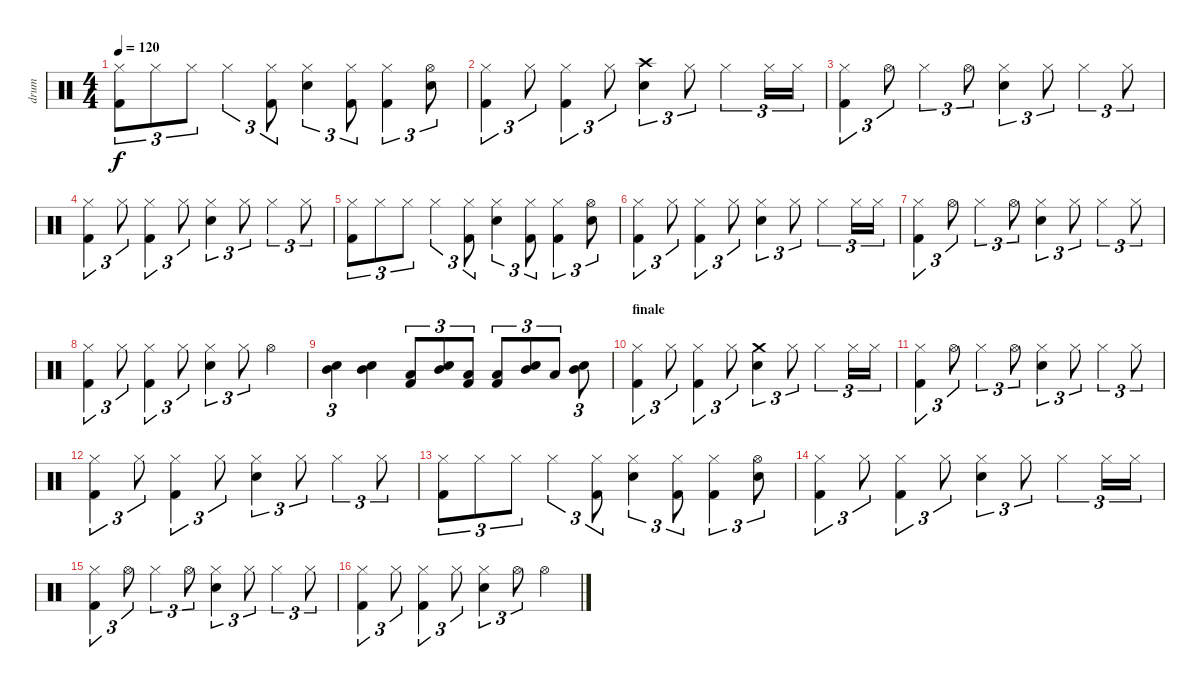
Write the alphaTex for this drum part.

\track ("drum" "drum") {instrument percussion}
\staff {score}
\articulation defaults
\ts (4 4)
\tempo 120
\clef neutral
\ks c
("Hi-Hat (closed)" "Kick (hit) 2").8{tu (3 2) dy f} "Hi-Hat (closed)".8{tu (3 2)} "Hi-Hat (closed)".8{tu (3 2)} "Hi-Hat (closed)".4{tu (3 2)} ("Hi-Hat (closed)" "Kick (hit) 2").8{tu (3 2)} ("Hi-Hat (closed)" "Electric Snare (hit)").4{tu (3 2)} ("Hi-Hat (closed)" "Kick (hit) 2").8{tu (3 2)} ("Hi-Hat (closed)" "Kick (hit) 2").4{tu (3 2)} ("Hi-Hat (open)" "Electric Snare (hit)").8{tu (3 2)} |
("Hi-Hat (closed)" "Kick (hit) 2").4{tu (3 2)} "Hi-Hat (closed)".8{tu (3 2)} ("Hi-Hat (closed)" "Kick (hit) 2").4{tu (3 2)} "Hi-Hat (closed)".8{tu (3 2)} ("Crash high (hit)" "Electric Snare (hit)").4{tu (3 2)} "Hi-Hat (closed)".8{tu (3 2)} "Hi-Hat (closed)".4{tu (3 2)} "Hi-Hat (closed)".16{tu (3 2)} "Hi-Hat (closed)".16{tu (3 2)} |
("Hi-Hat (closed)" "Kick (hit) 2").4{tu (3 2)} "Hi-Hat (open)".8{tu (3 2)} "Hi-Hat (closed)".4{tu (3 2)} "Hi-Hat (open)".8{tu (3 2)} ("Hi-Hat (closed)" "Electric Snare (hit)").4{tu (3 2)} "Hi-Hat (closed)".8{tu (3 2)} "Hi-Hat (closed)".4{tu (3 2)} "Hi-Hat (closed)".8{tu (3 2)} |
("Hi-Hat (closed)" "Kick (hit) 2").4{tu (3 2)} "Hi-Hat (closed)".8{tu (3 2)} ("Hi-Hat (closed)" "Kick (hit) 2").4{tu (3 2)} "Hi-Hat (closed)".8{tu (3 2)} ("Hi-Hat (closed)" "Electric Snare (hit)").4{tu (3 2)} "Hi-Hat (closed)".8{tu (3 2)} "Hi-Hat (closed)".4{tu (3 2)} "Hi-Hat (closed)".8{tu (3 2)} |
("Hi-Hat (closed)" "Kick (hit) 2").8{tu (3 2)} "Hi-Hat (closed)".8{tu (3 2)} "Hi-Hat (closed)".8{tu (3 2)} "Hi-Hat (closed)".4{tu (3 2)} ("Hi-Hat (closed)" "Kick (hit) 2").8{tu (3 2)} ("Hi-Hat (closed)" "Electric Snare (hit)").4{tu (3 2)} ("Hi-Hat (closed)" "Kick (hit) 2").8{tu (3 2)} ("Hi-Hat (closed)" "Kick (hit) 2").4{tu (3 2)} ("Hi-Hat (open)" "Electric Snare (hit)").8{tu (3 2)} |
("Hi-Hat (closed)" "Kick (hit) 2").4{tu (3 2)} "Hi-Hat (closed)".8{tu (3 2)} ("Hi-Hat (closed)" "Kick (hit) 2").4{tu (3 2)} "Hi-Hat (closed)".8{tu (3 2)} ("Hi-Hat (closed)" "Electric Snare (hit)").4{tu (3 2)} "Hi-Hat (closed)".8{tu (3 2)} "Hi-Hat (closed)".4{tu (3 2)} "Hi-Hat (closed)".16{tu (3 2)} "Hi-Hat (closed)".16{tu (3 2)} |
("Hi-Hat (closed)" "Kick (hit) 2").4{tu (3 2)} "Hi-Hat (open)".8{tu (3 2)} "Hi-Hat (closed)".4{tu (3 2)} "Hi-Hat (open)".8{tu (3 2)} ("Hi-Hat (closed)" "Electric Snare (hit)").4{tu (3 2)} "Hi-Hat (closed)".8{tu (3 2)} "Hi-Hat (closed)".4{tu (3 2)} "Hi-Hat (closed)".8{tu (3 2)} |
("Hi-Hat (closed)" "Kick (hit) 2").4{tu (3 2)} "Hi-Hat (closed)".8{tu (3 2)} ("Hi-Hat (closed)" "Kick (hit) 2").4{tu (3 2)} "Hi-Hat (closed)".8{tu (3 2)} ("Hi-Hat (closed)" "Electric Snare (hit)").4{tu (3 2)} "Hi-Hat (closed)".8{tu (3 2)} "Hi-Hat (open)".4 |
("Mid Tom (hit)" "Electric Snare (hit)").4{tu (3 2)} ("Mid Tom (hit)" "Electric Snare (hit)").4 ("Low Tom (hit)" "Kick (hit) 2").8{tu (3 2)} ("Mid Tom (hit)" "Electric Snare (hit)").8{tu (3 2)} ("Low Tom (hit)" "Kick (hit) 2").8{tu (3 2)} ("Low Tom (hit)" "Kick (hit) 2").8{tu (3 2)} ("Mid Tom (hit)" "Electric Snare (hit)").8{tu (3 2)} "Low Tom (hit)".8{tu (3 2)} ("Mid Tom (hit)" "Electric Snare (hit)").8{tu (3 2)} |
\section ("" "finale")
("Hi-Hat (closed)" "Kick (hit) 2").4{tu (3 2)} "Hi-Hat (closed)".8{tu (3 2)} ("Hi-Hat (closed)" "Kick (hit) 2").4{tu (3 2)} "Hi-Hat (closed)".8{tu (3 2)} ("Crash medium (hit)" "Electric Snare (hit)").4{tu (3 2)} "Hi-Hat (closed)".8{tu (3 2)} "Hi-Hat (closed)".4{tu (3 2)} "Hi-Hat (closed)".16{tu (3 2)} "Hi-Hat (closed)".16{tu (3 2)} |
("Hi-Hat (closed)" "Kick (hit) 2").4{tu (3 2)} "Hi-Hat (open)".8{tu (3 2)} "Hi-Hat (closed)".4{tu (3 2)} "Hi-Hat (open)".8{tu (3 2)} ("Hi-Hat (closed)" "Electric Snare (hit)").4{tu (3 2)} "Hi-Hat (closed)".8{tu (3 2)} "Hi-Hat (closed)".4{tu (3 2)} "Hi-Hat (closed)".8{tu (3 2)} |
("Hi-Hat (closed)" "Kick (hit) 2").4{tu (3 2)} "Hi-Hat (closed)".8{tu (3 2)} ("Hi-Hat (closed)" "Kick (hit) 2").4{tu (3 2)} "Hi-Hat (closed)".8{tu (3 2)} ("Hi-Hat (closed)" "Electric Snare (hit)").4{tu (3 2)} "Hi-Hat (closed)".8{tu (3 2)} "Hi-Hat (closed)".4{tu (3 2)} "Hi-Hat (closed)".8{tu (3 2)} |
("Hi-Hat (closed)" "Kick (hit) 2").8{tu (3 2)} "Hi-Hat (closed)".8{tu (3 2)} "Hi-Hat (closed)".8{tu (3 2)} "Hi-Hat (closed)".4{tu (3 2)} ("Hi-Hat (closed)" "Kick (hit) 2").8{tu (3 2)} ("Hi-Hat (closed)" "Electric Snare (hit)").4{tu (3 2)} ("Hi-Hat (closed)" "Kick (hit) 2").8{tu (3 2)} ("Hi-Hat (closed)" "Kick (hit) 2").4{tu (3 2)} ("Hi-Hat (open)" "Electric Snare (hit)").8{tu (3 2)} |
("Hi-Hat (closed)" "Kick (hit) 2").4{tu (3 2)} "Hi-Hat (closed)".8{tu (3 2)} ("Hi-Hat (closed)" "Kick (hit) 2").4{tu (3 2)} "Hi-Hat (closed)".8{tu (3 2)} ("Hi-Hat (closed)" "Electric Snare (hit)").4{tu (3 2)} "Hi-Hat (closed)".8{tu (3 2)} "Hi-Hat (closed)".4{tu (3 2)} "Hi-Hat (closed)".16{tu (3 2)} "Hi-Hat (closed)".16{tu (3 2)} |
("Hi-Hat (closed)" "Kick (hit) 2").4{tu (3 2)} "Hi-Hat (open)".8{tu (3 2)} "Hi-Hat (closed)".4{tu (3 2)} "Hi-Hat (open)".8{tu (3 2)} ("Hi-Hat (closed)" "Electric Snare (hit)").4{tu (3 2)} "Hi-Hat (closed)".8{tu (3 2)} "Hi-Hat (closed)".4{tu (3 2)} "Hi-Hat (closed)".8{tu (3 2)} |
("Hi-Hat (closed)" "Kick (hit) 2").4{tu (3 2)} "Hi-Hat (closed)".8{tu (3 2)} ("Hi-Hat (closed)" "Kick (hit) 2").4{tu (3 2)} "Hi-Hat (closed)".8{tu (3 2)} ("Hi-Hat (closed)" "Electric Snare (hit)").4{tu (3 2)} "Hi-Hat (open)".8{tu (3 2)} "Hi-Hat (open)".4
